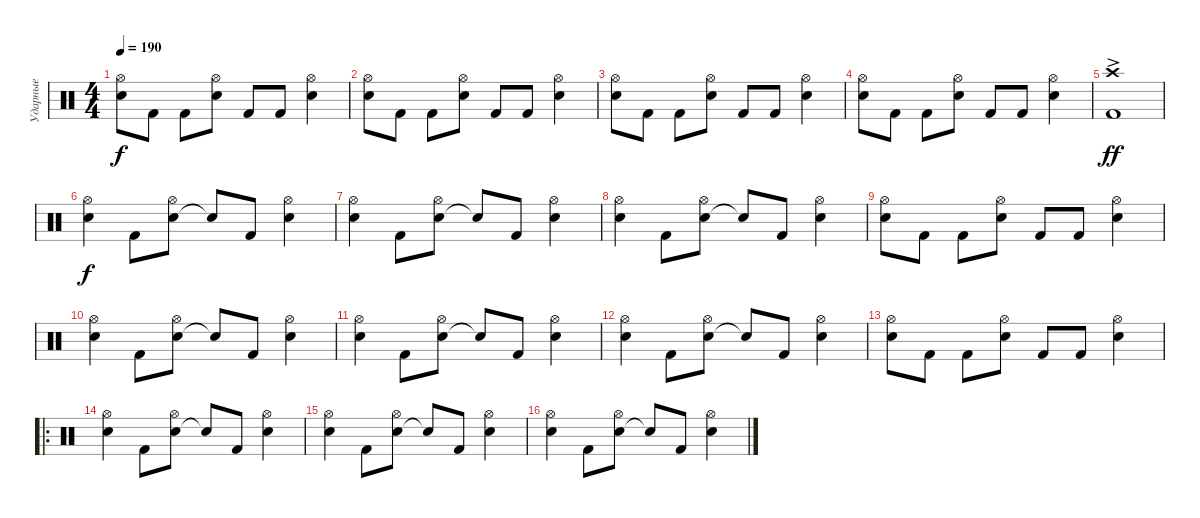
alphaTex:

\track ("Ударные" "Ударные") {instrument percussion}
\staff {score}
\articulation defaults
\ts (4 4)
\tempo 190
\clef neutral
\ks c
("Snare (hit) 2" "Hi-Hat (open)").8{dy f} "Kick (hit) 2".8 "Kick (hit) 2".8 ("Snare (hit) 2" "Hi-Hat (open)").8 "Kick (hit) 2".8 "Kick (hit) 2".8 ("Snare (hit) 2" "Hi-Hat (open)").4 |
("Snare (hit) 2" "Hi-Hat (open)").8 "Kick (hit) 2".8 "Kick (hit) 2".8 ("Snare (hit) 2" "Hi-Hat (open)").8 "Kick (hit) 2".8 "Kick (hit) 2".8 ("Snare (hit) 2" "Hi-Hat (open)").4 |
("Snare (hit) 2" "Hi-Hat (open)").8 "Kick (hit) 2".8 "Kick (hit) 2".8 ("Snare (hit) 2" "Hi-Hat (open)").8 "Kick (hit) 2".8 "Kick (hit) 2".8 ("Snare (hit) 2" "Hi-Hat (open)").4 |
("Snare (hit) 2" "Hi-Hat (open)").8 "Kick (hit) 2".8 "Kick (hit) 2".8 ("Snare (hit) 2" "Hi-Hat (open)").8 "Kick (hit) 2".8 "Kick (hit) 2".8 ("Snare (hit) 2" "Hi-Hat (open)").4 |
("Kick (hit) 2" "Crash high (hit)"{ac}).1{dy ff} |
("Snare (hit) 2" "Hi-Hat (open)").4{dy f} "Kick (hit) 2".8 ("Snare (hit) 2" "Hi-Hat (open)").8 "Snare (hit)"{t}.8 "Kick (hit) 2".8 ("Snare (hit) 2" "Hi-Hat (open)").4 |
("Snare (hit) 2" "Hi-Hat (open)").4 "Kick (hit) 2".8 ("Snare (hit) 2" "Hi-Hat (open)").8 "Snare (hit)"{t}.8 "Kick (hit) 2".8 ("Snare (hit) 2" "Hi-Hat (open)").4 |
("Snare (hit) 2" "Hi-Hat (open)").4 "Kick (hit) 2".8 ("Snare (hit) 2" "Hi-Hat (open)").8 "Snare (hit)"{t}.8 "Kick (hit) 2".8 ("Snare (hit) 2" "Hi-Hat (open)").4 |
("Snare (hit) 2" "Hi-Hat (open)").8 "Kick (hit) 2".8 "Kick (hit) 2".8 ("Snare (hit) 2" "Hi-Hat (open)").8 "Kick (hit) 2".8 "Kick (hit) 2".8 ("Snare (hit) 2" "Hi-Hat (open)").4 |
("Snare (hit) 2" "Hi-Hat (open)").4 "Kick (hit) 2".8 ("Snare (hit) 2" "Hi-Hat (open)").8 "Snare (hit)"{t}.8 "Kick (hit) 2".8 ("Snare (hit) 2" "Hi-Hat (open)").4 |
("Snare (hit) 2" "Hi-Hat (open)").4 "Kick (hit) 2".8 ("Snare (hit) 2" "Hi-Hat (open)").8 "Snare (hit)"{t}.8 "Kick (hit) 2".8 ("Snare (hit) 2" "Hi-Hat (open)").4 |
("Snare (hit) 2" "Hi-Hat (open)").4 "Kick (hit) 2".8 ("Snare (hit) 2" "Hi-Hat (open)").8 "Snare (hit)"{t}.8 "Kick (hit) 2".8 ("Snare (hit) 2" "Hi-Hat (open)").4 |
("Snare (hit) 2" "Hi-Hat (open)").8 "Kick (hit) 2".8 "Kick (hit) 2".8 ("Snare (hit) 2" "Hi-Hat (open)").8 "Kick (hit) 2".8 "Kick (hit) 2".8 ("Snare (hit) 2" "Hi-Hat (open)").4 |
\ro
("Snare (hit) 2" "Hi-Hat (open)").4 "Kick (hit) 2".8 ("Snare (hit) 2" "Hi-Hat (open)").8 "Snare (hit)"{t}.8 "Kick (hit) 2".8 ("Snare (hit) 2" "Hi-Hat (open)").4 |
("Snare (hit) 2" "Hi-Hat (open)").4 "Kick (hit) 2".8 ("Snare (hit) 2" "Hi-Hat (open)").8 "Snare (hit)"{t}.8 "Kick (hit) 2".8 ("Snare (hit) 2" "Hi-Hat (open)").4 |
("Snare (hit) 2" "Hi-Hat (open)").4 "Kick (hit) 2".8 ("Snare (hit) 2" "Hi-Hat (open)").8 "Snare (hit)"{t}.8 "Kick (hit) 2".8 ("Snare (hit) 2" "Hi-Hat (open)").4
